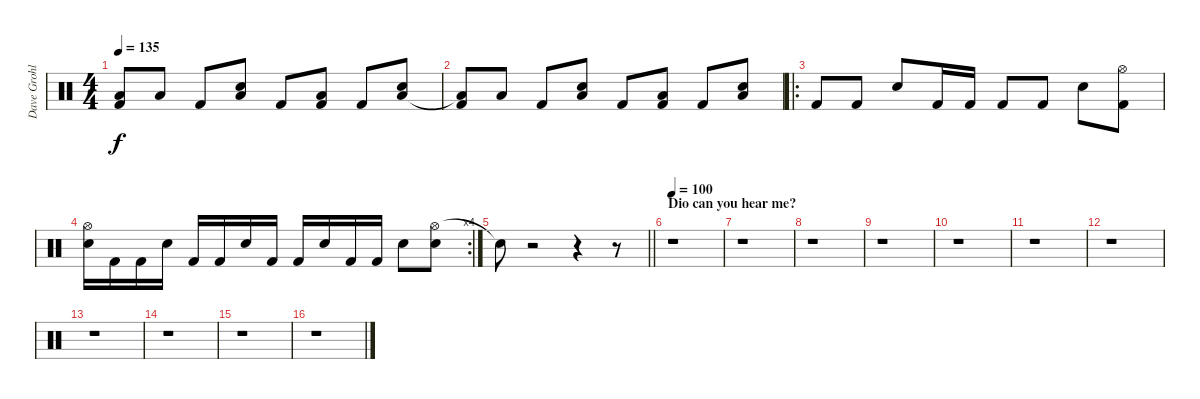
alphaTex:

\track ("Dave Grohl" "Dave Grohl") {instrument percussion}
\staff {score}
\articulation defaults
\ts (4 4)
\tempo 135
\clef neutral
\ks c
("Kick (hit) 2" "Low Tom (hit)"{t}).8{dy f} "Low Tom (hit)".8 "Kick (hit) 2".8 ("Snare (hit) 2" "Low Tom (hit)").8 "Kick (hit) 2".8 ("Kick (hit) 2" "Low Tom (hit)").8 "Kick (hit) 2".8 ("Snare (hit) 2" "Low Tom (hit)").8 |
("Kick (hit) 2" "Low Tom (hit)"{t}).8 "Low Tom (hit)".8 "Kick (hit) 2".8 ("Snare (hit) 2" "Low Tom (hit)").8 "Kick (hit) 2".8 ("Kick (hit) 2" "Low Tom (hit)").8 "Kick (hit) 2".8 ("Snare (hit) 2" "Low Tom (hit)").8 |
\ro "Kick (hit) 2".8 "Kick (hit) 2".8 "Snare (hit) 2".8 "Kick (hit) 2".16 "Kick (hit) 2".16 "Kick (hit) 2".8 "Kick (hit) 2".8 "Snare (hit) 2".8
("Hi-Hat (open)" "Kick (hit) 2").8 |
\rc 4
("Hi-Hat (open)" "Snare (hit) 2").16 "Kick (hit) 2".16 "Kick (hit) 2".16 "Snare (hit) 2".16 "Kick (hit) 2".16 "Kick (hit) 2".16 "Snare (hit) 2".16 "Kick (hit) 2".16 "Kick (hit) 2".16 "Snare (hit) 2".16 "Kick (hit) 2".16 "Kick (hit) 2".16 "Snare (hit) 2".8 ("Hi-Hat (open)" "Snare (hit) 2").8 |
\barLineRight lightlight "Snare (hit)"{t}.8
r.2 r.4 r.8 |
\section ("" "Dio can you hear me?")
\tempo 100
r.1 |
r.1 |
r.1 |
r.1 |
r.1 |
r.1 |
r.1 |
r.1 |
r.1 |
r.1 |
r.1
